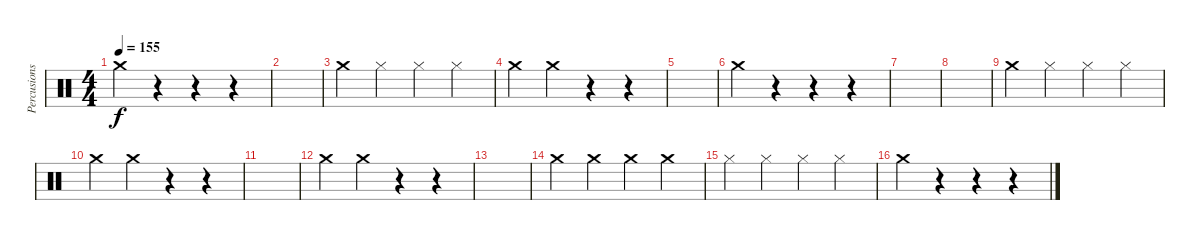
\track ("Percusions (discs)" "Percusions") {instrument percussion}
\staff {score}
\articulation defaults
\ts (4 4)
\tempo 155
\clef neutral
\ks c "Crash medium (hit)".4{dy f}
r.4 r.4 r.4 |
|
"Crash medium (hit)".4 "Hi-Hat (closed)".4 "Hi-Hat (closed)".4 "Hi-Hat (closed)".4 |
"Crash medium (hit)".4 "Crash medium (hit)".4 r.4 r.4 |
|
"Crash medium (hit)".4 r.4 r.4 r.4 |
|
|
"Crash medium (hit)".4 "Hi-Hat (closed)".4 "Hi-Hat (closed)".4 "Hi-Hat (closed)".4 |
"Crash medium (hit)".4 "Crash medium (hit)".4 r.4 r.4 |
|
"Crash medium (hit)".4 "Crash medium (hit)".4 r.4 r.4 |
|
"Crash medium (hit)".4 "Crash medium (hit)".4 "Crash medium (hit)".4 "Crash medium (hit)".4 |
"Hi-Hat (closed)".4 "Hi-Hat (closed)".4 "Hi-Hat (closed)".4 "Hi-Hat (closed)".4 |
"Crash medium (hit)".4 r.4 r.4 r.4
